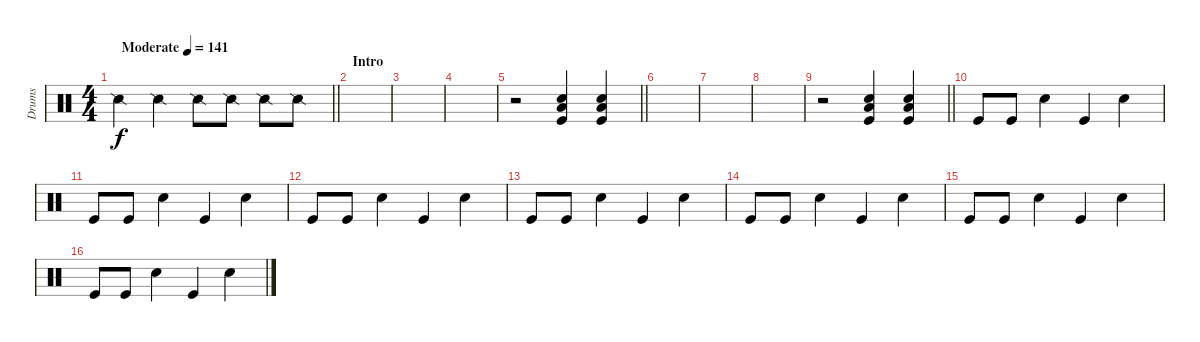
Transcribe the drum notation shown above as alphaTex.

\track ("Drums" "Drums") {instrument percussion}
\staff {score}
\articulation defaults
\ts (4 4)
\tempo (141 "Moderate")
\clef neutral
\barLineRight lightlight
\ks c "Snare (side stick) 2".4{dy f} "Snare (side stick) 2".4 "Snare (side stick) 2".8 "Snare (side stick) 2".8 "Snare (side stick) 2".8 "Snare (side stick) 2".8
|
\section ("" "Intro")
|
|
|
\barLineRight lightlight
r.2 ("Low Floor Tom (hit)" "Snare (hit) 2" "Kick (hit)").4 ("Low Floor Tom (hit)" "Snare (hit) 2" "Kick (hit)").4 |
|
|
|
\barLineRight lightlight
r.2 ("Low Floor Tom (hit)" "Snare (hit) 2" "Kick (hit)").4 ("Low Floor Tom (hit)" "Snare (hit) 2" "Kick (hit)").4 |
"Kick (hit)".8 "Kick (hit)".8 "Snare (hit) 2".4 "Kick (hit)".4 "Snare (hit) 2".4 |
"Kick (hit)".8 "Kick (hit)".8 "Snare (hit) 2".4 "Kick (hit)".4 "Snare (hit) 2".4 |
"Kick (hit)".8 "Kick (hit)".8 "Snare (hit) 2".4 "Kick (hit)".4 "Snare (hit) 2".4 |
"Kick (hit)".8 "Kick (hit)".8 "Snare (hit) 2".4 "Kick (hit)".4 "Snare (hit) 2".4 |
"Kick (hit)".8 "Kick (hit)".8 "Snare (hit) 2".4 "Kick (hit)".4 "Snare (hit) 2".4 |
"Kick (hit)".8 "Kick (hit)".8 "Snare (hit) 2".4 "Kick (hit)".4 "Snare (hit) 2".4 |
"Kick (hit)".8 "Kick (hit)".8 "Snare (hit) 2".4 "Kick (hit)".4 "Snare (hit) 2".4
